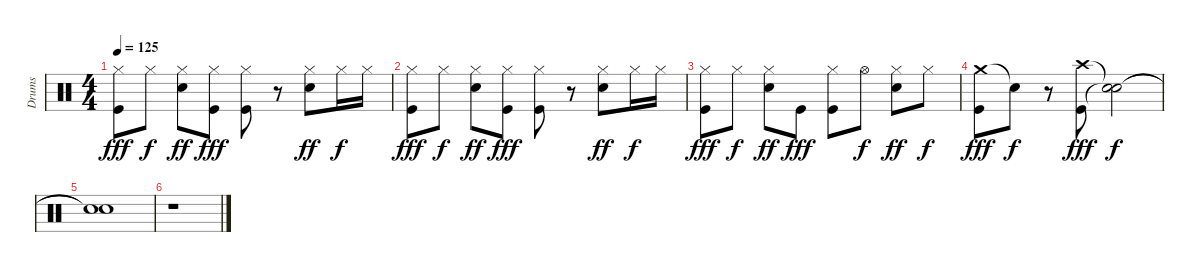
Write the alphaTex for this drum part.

\track ("Drums" "Drums") {instrument percussion}
\staff {score}
\articulation defaults
\ts (4 4)
\tempo 125
\clef neutral
\ks c
("Hi-Hat (closed)" "Kick (hit)").8{dy fff} "Hi-Hat (closed)".8{dy f} ("Hi-Hat (closed)" "Snare (hit) 2").8{dy ff} ("Hi-Hat (closed)" "Kick (hit)").8{dy fff} ("Hi-Hat (closed)" "Kick (hit)").8 r.8 ("Hi-Hat (closed)" "Snare (hit) 2").8{dy ff} "Hi-Hat (closed)".16{dy f} "Hi-Hat (closed)".16 |
("Hi-Hat (closed)" "Kick (hit)").8{dy fff} "Hi-Hat (closed)".8{dy f} ("Hi-Hat (closed)" "Snare (hit) 2").8{dy ff} ("Hi-Hat (closed)" "Kick (hit)").8{dy fff} ("Hi-Hat (closed)" "Kick (hit)").8 r.8 ("Hi-Hat (closed)" "Snare (hit) 2").8{dy ff} "Hi-Hat (closed)".16{dy f} "Hi-Hat (closed)".16 |
("Hi-Hat (closed)" "Kick (hit)").8{dy fff} "Hi-Hat (closed)".8{dy f} ("Hi-Hat (closed)" "Snare (hit) 2").8{dy ff} "Kick (hit)".8{dy fff} ("Hi-Hat (closed)" "Kick (hit)").8 "Hi-Hat (open)".8{dy f} ("Hi-Hat (closed)" "Snare (hit) 2").8{dy ff} "Hi-Hat (closed)".8{dy f} |
("Crash medium (hit)" "Kick (hit)").8{dy fff} "Snare (hit)"{t}.8{dy f} r.8 ("Crash high (hit)" "Kick (hit)").8{dy fff} ("Snare (hit)"{t} "Snare (hit)"{t}).2{dy f} |
("Snare (hit)"{t} "Snare (hit)"{t}).1 |
r.1
